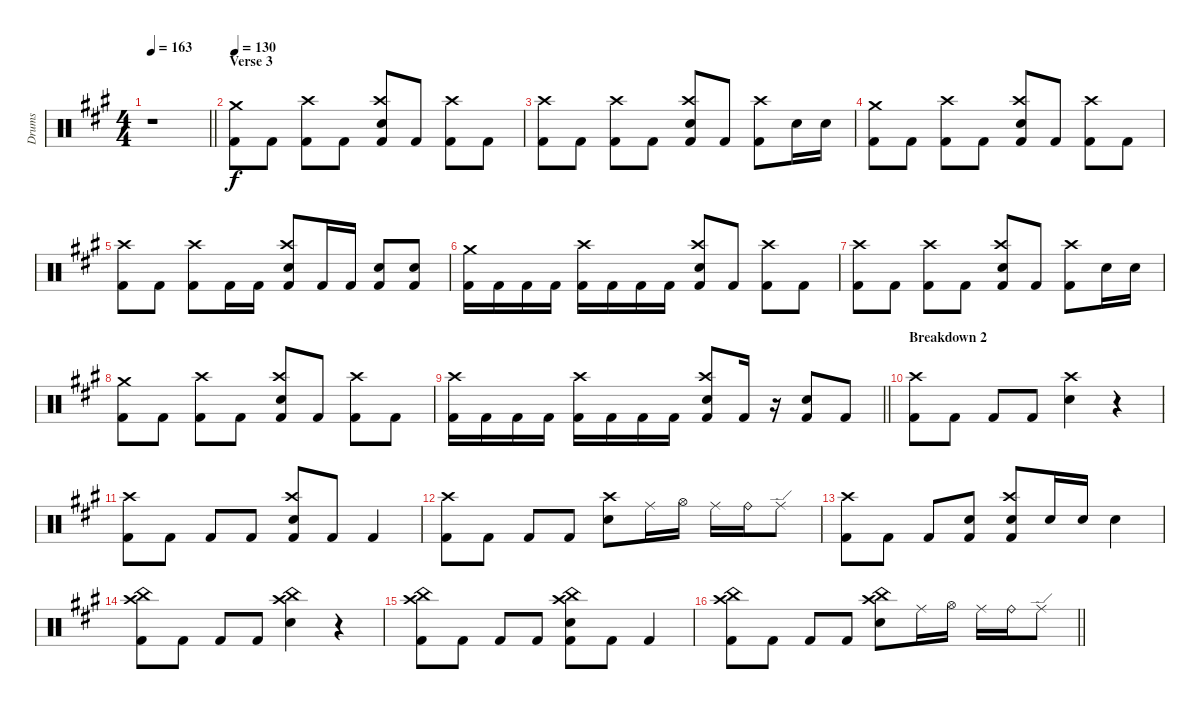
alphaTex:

\track ("Drums" "Drums") {instrument percussion}
\staff {score}
\articulation defaults
\ts (4 4)
\tempo 163
\clef neutral
\barLineRight lightlight
\ks a
r.1{dy f} |
\section ("" "Verse 3")
\tempo 130
("Crash medium (hit)" "Kick (hit) 2").8 "Kick (hit) 2".8 ("Crash high (hit)" "Kick (hit) 2").8 "Kick (hit) 2".8 ("Crash high (hit)" "Snare (hit) 2" "Kick (hit) 2").8 "Kick (hit) 2".8 ("Crash high (hit)" "Kick (hit) 2").8 "Kick (hit) 2".8 |
("Crash high (hit)" "Kick (hit) 2").8 "Kick (hit) 2".8 ("Crash high (hit)" "Kick (hit) 2").8 "Kick (hit) 2".8 ("Crash high (hit)" "Snare (hit) 2" "Kick (hit) 2").8 "Kick (hit) 2".8 ("Crash high (hit)" "Kick (hit) 2").8 "Snare (hit) 2".16 "Snare (hit) 2".16 |
("Crash medium (hit)" "Kick (hit) 2").8 "Kick (hit) 2".8 ("Crash high (hit)" "Kick (hit) 2").8 "Kick (hit) 2".8 ("Crash high (hit)" "Snare (hit) 2" "Kick (hit) 2").8 "Kick (hit) 2".8 ("Crash high (hit)" "Kick (hit) 2").8 "Kick (hit) 2".8 |
("Crash high (hit)" "Kick (hit) 2").8 "Kick (hit) 2".8 ("Crash high (hit)" "Kick (hit) 2").8 "Kick (hit) 2".16 "Kick (hit) 2".16 ("Crash high (hit)" "Snare (hit) 2" "Kick (hit) 2").8 "Kick (hit) 2".16 "Kick (hit) 2".16 ("Snare (hit) 2" "Kick (hit) 2").8 ("Snare (hit) 2" "Kick (hit) 2").8 |
("Crash medium (hit)" "Kick (hit) 2").16 "Kick (hit) 2".16 "Kick (hit) 2".16 "Kick (hit) 2".16 ("Crash high (hit)" "Kick (hit) 2").16 "Kick (hit) 2".16 "Kick (hit) 2".16 "Kick (hit) 2".16 ("Crash high (hit)" "Snare (hit) 2" "Kick (hit) 2").8 "Kick (hit) 2".8 ("Crash high (hit)" "Kick (hit) 2").8 "Kick (hit) 2".8 |
("Crash high (hit)" "Kick (hit) 2").8 "Kick (hit) 2".8 ("Crash high (hit)" "Kick (hit) 2").8 "Kick (hit) 2".8 ("Crash high (hit)" "Snare (hit) 2" "Kick (hit) 2").8 "Kick (hit) 2".8 ("Crash high (hit)" "Kick (hit) 2").8 "Snare (hit) 2".16 "Snare (hit) 2".16 |
("Crash medium (hit)" "Kick (hit) 2").8 "Kick (hit) 2".8 ("Crash high (hit)" "Kick (hit) 2").8 "Kick (hit) 2".8 ("Crash high (hit)" "Snare (hit) 2" "Kick (hit) 2").8 "Kick (hit) 2".8 ("Crash high (hit)" "Kick (hit) 2").8 "Kick (hit) 2".8 |
\barLineRight lightlight
("Crash high (hit)" "Kick (hit) 2").16 "Kick (hit) 2".16 "Kick (hit) 2".16 "Kick (hit) 2".16 ("Crash high (hit)" "Kick (hit) 2").16 "Kick (hit) 2".16 "Kick (hit) 2".16 "Kick (hit) 2".16 ("Crash high (hit)" "Snare (hit) 2" "Kick (hit) 2").8 "Kick (hit) 2".16 r.16 ("Snare (hit) 2" "Kick (hit) 2").8 "Kick (hit) 2".8 |
\section ("" "Breakdown 2")
("Crash high (hit)" "Kick (hit) 2").8 "Kick (hit) 2".8 "Kick (hit) 2".8 "Kick (hit) 2".8 ("Crash high (hit)" "Snare (hit) 2").4 r.4 |
("Crash high (hit)" "Kick (hit) 2").8 "Kick (hit) 2".8 "Kick (hit) 2".8 "Kick (hit) 2".8 ("Crash high (hit)" "Snare (hit) 2" "Kick (hit) 2").8 "Kick (hit) 2".8 "Kick (hit) 2".4 |
("Crash high (hit)" "Kick (hit) 2").8 "Kick (hit) 2".8 "Kick (hit) 2".8 "Kick (hit) 2".8 ("Crash high (hit)" "Snare (hit) 2").8 "Ride (middle)".16 "Hi-Hat (open)".16 "Ride (middle)".16 "Ride (bell)".16 "Ride (edge)".8 |
("Crash high (hit)" "Kick (hit) 2").8 "Kick (hit) 2".8 "Kick (hit) 2".8 ("Snare (hit) 2" "Kick (hit) 2").8 ("Crash high (hit)" "Snare (hit) 2" "Kick (hit) 2").8 "Snare (hit) 2".16 "Snare (hit) 2".16 "Snare (hit) 2".4 |
("China (hit)" "Crash high (hit)" "Kick (hit) 2").8 "Kick (hit) 2".8 "Kick (hit) 2".8 "Kick (hit) 2".8 ("China (hit)" "Crash high (hit)" "Snare (hit) 2").4 r.4 |
("China (hit)" "Crash high (hit)" "Kick (hit) 2").8 "Kick (hit) 2".8 "Kick (hit) 2".8 "Kick (hit) 2".8 ("China (hit)" "Crash high (hit)" "Snare (hit) 2" "Kick (hit) 2").8 "Kick (hit) 2".8 "Kick (hit) 2".4 |
\barLineRight lightlight
("China (hit)" "Crash high (hit)" "Kick (hit) 2").8 "Kick (hit) 2".8 "Kick (hit) 2".8 "Kick (hit) 2".8 ("China (hit)" "Crash high (hit)" "Snare (hit) 2").8 "Ride (middle)".16 "Hi-Hat (open)".16 "Ride (middle)".16 "Ride (bell)".16 "Ride (edge)".8
